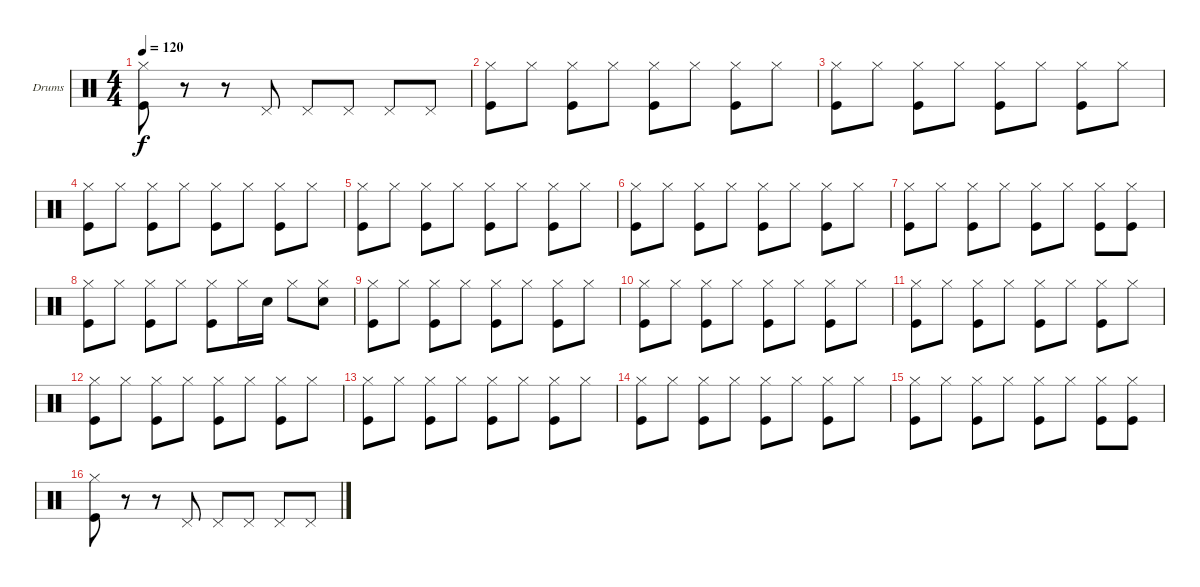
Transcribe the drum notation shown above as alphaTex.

\bracketExtendMode groupsimilarinstruments
\firstSystemTrackNameOrientation horizontal
\otherSystemsTrackNameOrientation horizontal
\track ("Ударные" "Drums") {instrument percussion}
\staff {score}
\articulation defaults
\ts (4 4)
\tempo 120
\clef neutral
\ks c
("Hi-Hat (closed)" "Kick (hit)").8{dy f} r.8 r.8 "Pedal Hi-Hat (hit)".8 "Pedal Hi-Hat (hit)".8 "Pedal Hi-Hat (hit)".8 "Pedal Hi-Hat (hit)".8 "Pedal Hi-Hat (hit)".8 |
("Hi-Hat (closed)" "Kick (hit)").8 "Hi-Hat (closed)".8 ("Hi-Hat (closed)" "Kick (hit)").8 "Hi-Hat (closed)".8 ("Hi-Hat (closed)" "Kick (hit)").8 "Hi-Hat (closed)".8 ("Hi-Hat (closed)" "Kick (hit)").8 "Hi-Hat (closed)".8 |
("Hi-Hat (closed)" "Kick (hit)").8 "Hi-Hat (closed)".8 ("Hi-Hat (closed)" "Kick (hit)").8 "Hi-Hat (closed)".8 ("Hi-Hat (closed)" "Kick (hit)").8 "Hi-Hat (closed)".8 ("Hi-Hat (closed)" "Kick (hit)").8 "Hi-Hat (closed)".8 |
("Hi-Hat (closed)" "Kick (hit)").8 "Hi-Hat (closed)".8 ("Hi-Hat (closed)" "Kick (hit)").8 "Hi-Hat (closed)".8 ("Hi-Hat (closed)" "Kick (hit)").8 "Hi-Hat (closed)".8 ("Hi-Hat (closed)" "Kick (hit)").8 "Hi-Hat (closed)".8 |
("Hi-Hat (closed)" "Kick (hit)").8 "Hi-Hat (closed)".8 ("Hi-Hat (closed)" "Kick (hit)").8 "Hi-Hat (closed)".8 ("Hi-Hat (closed)" "Kick (hit)").8 "Hi-Hat (closed)".8 ("Hi-Hat (closed)" "Kick (hit)").8 "Hi-Hat (closed)".8 |
("Hi-Hat (closed)" "Kick (hit)").8 "Hi-Hat (closed)".8 ("Hi-Hat (closed)" "Kick (hit)").8 "Hi-Hat (closed)".8 ("Hi-Hat (closed)" "Kick (hit)").8 "Hi-Hat (closed)".8 ("Hi-Hat (closed)" "Kick (hit)").8 "Hi-Hat (closed)".8 |
("Hi-Hat (closed)" "Kick (hit)").8 "Hi-Hat (closed)".8 ("Hi-Hat (closed)" "Kick (hit)").8 "Hi-Hat (closed)".8 ("Hi-Hat (closed)" "Kick (hit)").8 "Hi-Hat (closed)".8 ("Hi-Hat (closed)" "Kick (hit)").8 ("Hi-Hat (closed)" "Kick (hit)").8 |
("Hi-Hat (closed)" "Kick (hit)").8 "Hi-Hat (closed)".8 ("Hi-Hat (closed)" "Kick (hit)").8 "Hi-Hat (closed)".8 ("Hi-Hat (closed)" "Kick (hit)").8 "Hi-Hat (closed)".16 "Snare (hit) 2".16 "Hi-Hat (closed)".8 ("Hi-Hat (closed)" "Snare (hit) 2").8 |
("Hi-Hat (closed)" "Kick (hit)").8 "Hi-Hat (closed)".8 ("Hi-Hat (closed)" "Kick (hit)").8 "Hi-Hat (closed)".8 ("Hi-Hat (closed)" "Kick (hit)").8 "Hi-Hat (closed)".8 ("Hi-Hat (closed)" "Kick (hit)").8 "Hi-Hat (closed)".8 |
("Hi-Hat (closed)" "Kick (hit)").8 "Hi-Hat (closed)".8 ("Hi-Hat (closed)" "Kick (hit)").8 "Hi-Hat (closed)".8 ("Hi-Hat (closed)" "Kick (hit)").8 "Hi-Hat (closed)".8 ("Hi-Hat (closed)" "Kick (hit)").8 "Hi-Hat (closed)".8 |
("Hi-Hat (closed)" "Kick (hit)").8 "Hi-Hat (closed)".8 ("Hi-Hat (closed)" "Kick (hit)").8 "Hi-Hat (closed)".8 ("Hi-Hat (closed)" "Kick (hit)").8 "Hi-Hat (closed)".8 ("Hi-Hat (closed)" "Kick (hit)").8 "Hi-Hat (closed)".8 |
("Hi-Hat (closed)" "Kick (hit)").8 "Hi-Hat (closed)".8 ("Hi-Hat (closed)" "Kick (hit)").8 "Hi-Hat (closed)".8 ("Hi-Hat (closed)" "Kick (hit)").8 "Hi-Hat (closed)".8 ("Hi-Hat (closed)" "Kick (hit)").8 "Hi-Hat (closed)".8 |
("Hi-Hat (closed)" "Kick (hit)").8 "Hi-Hat (closed)".8 ("Hi-Hat (closed)" "Kick (hit)").8 "Hi-Hat (closed)".8 ("Hi-Hat (closed)" "Kick (hit)").8 "Hi-Hat (closed)".8 ("Hi-Hat (closed)" "Kick (hit)").8 "Hi-Hat (closed)".8 |
("Hi-Hat (closed)" "Kick (hit)").8 "Hi-Hat (closed)".8 ("Hi-Hat (closed)" "Kick (hit)").8 "Hi-Hat (closed)".8 ("Hi-Hat (closed)" "Kick (hit)").8 "Hi-Hat (closed)".8 ("Hi-Hat (closed)" "Kick (hit)").8 "Hi-Hat (closed)".8 |
("Hi-Hat (closed)" "Kick (hit)").8 "Hi-Hat (closed)".8 ("Hi-Hat (closed)" "Kick (hit)").8 "Hi-Hat (closed)".8 ("Hi-Hat (closed)" "Kick (hit)").8 "Hi-Hat (closed)".8 ("Hi-Hat (closed)" "Kick (hit)").8 ("Hi-Hat (closed)" "Kick (hit)").8 |
("Hi-Hat (closed)" "Kick (hit)").8 r.8 r.8 "Pedal Hi-Hat (hit)".8 "Pedal Hi-Hat (hit)".8 "Pedal Hi-Hat (hit)".8 "Pedal Hi-Hat (hit)".8 "Pedal Hi-Hat (hit)".8
